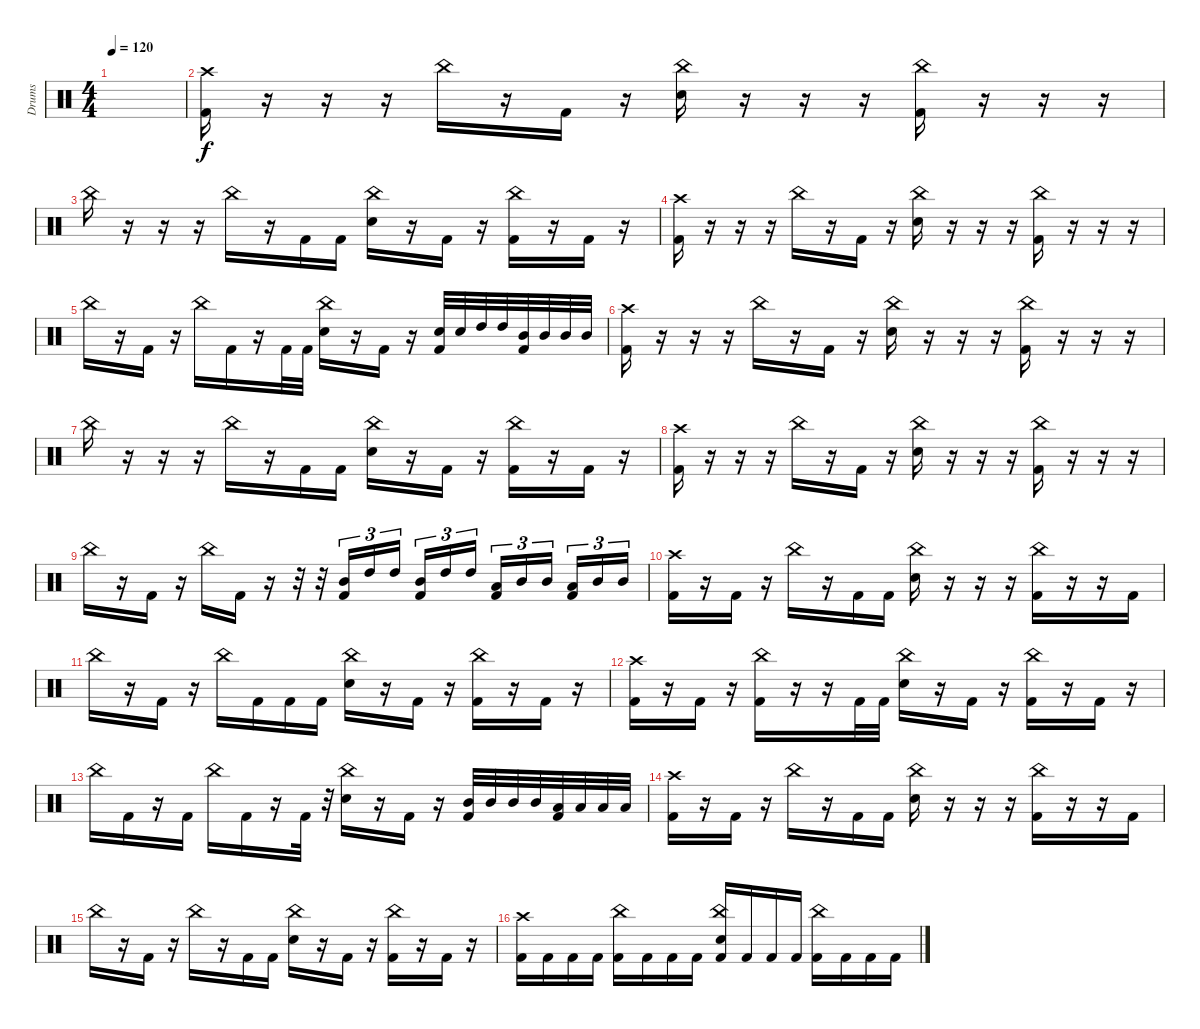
\track ("Drums" "Drums") {instrument percussion}
\staff {score}
\articulation defaults
\ts (4 4)
\tempo 120
\clef neutral
\ks c
|
("Crash high (hit)" "Kick (hit) 2").16 r.16 r.16 r.16 "China (hit)".16 r.16 "Kick (hit) 2".16 r.16 ("China (hit)" "Snare (hit) 2").16 r.16 r.16 r.16 ("China (hit)" "Kick (hit) 2").16 r.16 r.16 r.16 |
"China (hit)".16 r.16 r.16 r.16 "China (hit)".16 r.16 "Kick (hit) 2".16 "Kick (hit) 2".16 ("China (hit)" "Snare (hit) 2").16 r.16 "Kick (hit) 2".16 r.16 ("China (hit)" "Kick (hit) 2").16 r.16 "Kick (hit) 2".16 r.16 |
("Crash high (hit)" "Kick (hit) 2").16 r.16 r.16 r.16 "China (hit)".16 r.16 "Kick (hit) 2".16 r.16 ("China (hit)" "Snare (hit) 2").16 r.16 r.16 r.16 ("China (hit)" "Kick (hit) 2").16 r.16 r.16 r.16 |
"China (hit)".16 r.16 "Kick (hit) 2".16 r.16 "China (hit)".16 "Kick (hit) 2".16 r.16 "Kick (hit) 2".32 "Kick (hit) 2".32 ("China (hit)" "Snare (hit) 2").16 r.16 "Kick (hit) 2".16 r.16 ("Snare (hit) 2" "Kick (hit) 2").32 "Snare (hit) 2".32 "High Tom (hit)".32 "High Tom (hit)".32 ("Mid Tom (hit)" "Kick (hit) 2").32 "Mid Tom (hit)".32 "Mid Tom (hit)".32 "Mid Tom (hit)".32 |
("Crash high (hit)" "Kick (hit) 2").16 r.16 r.16 r.16 "China (hit)".16 r.16 "Kick (hit) 2".16 r.16 ("China (hit)" "Snare (hit) 2").16 r.16 r.16 r.16 ("China (hit)" "Kick (hit) 2").16 r.16 r.16 r.16 |
"China (hit)".16 r.16 r.16 r.16 "China (hit)".16 r.16 "Kick (hit) 2".16 "Kick (hit) 2".16 ("China (hit)" "Snare (hit) 2").16 r.16 "Kick (hit) 2".16 r.16 ("China (hit)" "Kick (hit) 2").16 r.16 "Kick (hit) 2".16 r.16 |
("Crash high (hit)" "Kick (hit) 2").16 r.16 r.16 r.16 "China (hit)".16 r.16 "Kick (hit) 2".16 r.16 ("China (hit)" "Snare (hit) 2").16 r.16 r.16 r.16 ("China (hit)" "Kick (hit) 2").16 r.16 r.16 r.16 |
"China (hit)".16 r.16 "Kick (hit) 2".16 r.16 "China (hit)".16 "Kick (hit) 2".16 r.16 r.32 r.32 ("Mid Tom (hit)" "Kick (hit) 2").16{tu (3 2)} "High Tom (hit)".16{tu (3 2)} "High Tom (hit)".16{tu (3 2) beam splitsecondary} ("Mid Tom (hit)" "Kick (hit) 2").16{tu (3 2)} "High Tom (hit)".16{tu (3 2)} "High Tom (hit)".16{tu (3 2)} ("Low Tom (hit)" "Kick (hit) 2").16{tu (3 2)} "Mid Tom (hit)".16{tu (3 2)} "Mid Tom (hit)".16{tu (3 2) beam splitsecondary} ("Low Tom (hit)" "Kick (hit) 2").16{tu (3 2)} "Mid Tom (hit)".16{tu (3 2)} "Mid Tom (hit)".16{tu (3 2)} |
("Crash high (hit)" "Kick (hit) 2").16 r.16 "Kick (hit) 2".16 r.16 "China (hit)".16 r.16 "Kick (hit) 2".16 "Kick (hit) 2".16 ("China (hit)" "Snare (hit) 2").16 r.16 r.16 r.16 ("China (hit)" "Kick (hit) 2").16 r.16 r.16 "Kick (hit) 2".16 |
"China (hit)".16 r.16 "Kick (hit) 2".16 r.16 "China (hit)".16 "Kick (hit) 2".16 "Kick (hit) 2".16 "Kick (hit) 2".16 ("China (hit)" "Snare (hit) 2").16 r.16 "Kick (hit) 2".16 r.16 ("China (hit)" "Kick (hit) 2").16 r.16 "Kick (hit) 2".16 r.16 |
("Crash high (hit)" "Kick (hit) 2").16 r.16 "Kick (hit) 2".16 r.16 ("China (hit)" "Kick (hit) 2").16 r.16 r.16 "Kick (hit) 2".32 "Kick (hit) 2".32 ("China (hit)" "Snare (hit) 2").16 r.16 "Kick (hit) 2".16 r.16 ("China (hit)" "Kick (hit) 2").16 r.16 "Kick (hit) 2".16 r.16 |
"China (hit)".16 "Kick (hit) 2".16 r.16 "Kick (hit) 2".16 "China (hit)".16 "Kick (hit) 2".16 r.16 "Kick (hit) 2".32 r.32 ("China (hit)" "Snare (hit) 2").16 r.16 "Kick (hit) 2".16 r.16 ("Mid Tom (hit)" "Kick (hit) 2").32 "Mid Tom (hit)".32 "Mid Tom (hit)".32 "Mid Tom (hit)".32 ("Low Tom (hit)" "Kick (hit) 2").32 "Low Tom (hit)".32 "Low Tom (hit)".32 "Low Tom (hit)".32 |
("Crash high (hit)" "Kick (hit) 2").16 r.16 "Kick (hit) 2".16 r.16 "China (hit)".16 r.16 "Kick (hit) 2".16 "Kick (hit) 2".16 ("China (hit)" "Snare (hit) 2").16 r.16 r.16 r.16 ("China (hit)" "Kick (hit) 2").16 r.16 r.16 "Kick (hit) 2".16 |
"China (hit)".16 r.16 "Kick (hit) 2".16 r.16 "China (hit)".16 r.16 "Kick (hit) 2".16 "Kick (hit) 2".16 ("China (hit)" "Snare (hit) 2").16 r.16 "Kick (hit) 2".16 r.16 ("China (hit)" "Kick (hit) 2").16 r.16 "Kick (hit) 2".16 r.16 |
("Crash high (hit)" "Kick (hit) 2").16 "Kick (hit) 2".16 "Kick (hit) 2".16 "Kick (hit) 2".16 ("China (hit)" "Kick (hit) 2").16 "Kick (hit) 2".16 "Kick (hit) 2".16 "Kick (hit) 2".16 ("China (hit)" "Snare (hit) 2" "Kick (hit) 2").16 "Kick (hit) 2".16 "Kick (hit) 2".16 "Kick (hit) 2".16 ("China (hit)" "Kick (hit) 2").16 "Kick (hit) 2".16 "Kick (hit) 2".16 "Kick (hit) 2".16
